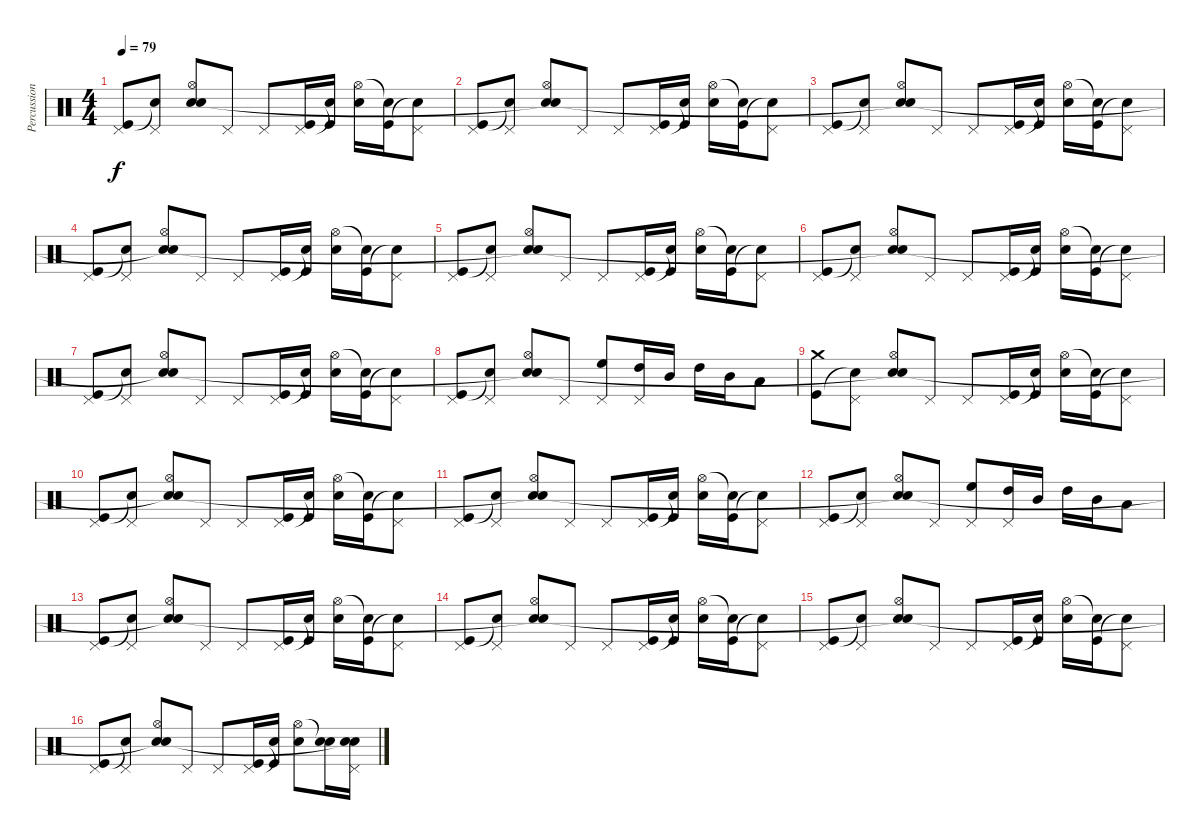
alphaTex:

\track ("Percussion" "Percussion") {instrument percussion}
\staff {score}
\articulation defaults
\ts (4 4)
\tempo 79
\clef neutral
\ks c
("Pedal Hi-Hat (hit)" "Kick (hit)").8{dy f} ("Pedal Hi-Hat (hit)" "Snare (hit)"{t}).8 ("Hi-Hat (open)" "Electric Snare (hit)" "Snare (hit)"{t}).8 "Pedal Hi-Hat (hit)".8 "Pedal Hi-Hat (hit)".8 ("Pedal Hi-Hat (hit)" "Kick (hit)").16 ("Snare (hit)"{t} "Kick (hit)").16 ("Hi-Hat (open)" "Electric Snare (hit)").16 ("Snare (hit)"{t} "Kick (hit)").16 ("Pedal Hi-Hat (hit)" "Snare (hit)"{t}).8 |
("Pedal Hi-Hat (hit)" "Kick (hit)").8 ("Pedal Hi-Hat (hit)" "Snare (hit)"{t}).8 ("Hi-Hat (open)" "Electric Snare (hit)" "Snare (hit)"{t}).8 "Pedal Hi-Hat (hit)".8 "Pedal Hi-Hat (hit)".8 ("Pedal Hi-Hat (hit)" "Kick (hit)").16 ("Snare (hit)"{t} "Kick (hit)").16 ("Hi-Hat (open)" "Electric Snare (hit)").16 ("Snare (hit)"{t} "Kick (hit)").16 ("Pedal Hi-Hat (hit)" "Snare (hit)"{t}).8 |
("Pedal Hi-Hat (hit)" "Kick (hit)").8 ("Pedal Hi-Hat (hit)" "Snare (hit)"{t}).8 ("Hi-Hat (open)" "Electric Snare (hit)" "Snare (hit)"{t}).8 "Pedal Hi-Hat (hit)".8 "Pedal Hi-Hat (hit)".8 ("Pedal Hi-Hat (hit)" "Kick (hit)").16 ("Snare (hit)"{t} "Kick (hit)").16 ("Hi-Hat (open)" "Electric Snare (hit)").16 ("Snare (hit)"{t} "Kick (hit)").16 ("Pedal Hi-Hat (hit)" "Snare (hit)"{t}).8 |
("Pedal Hi-Hat (hit)" "Kick (hit)").8 ("Pedal Hi-Hat (hit)" "Snare (hit)"{t}).8 ("Hi-Hat (open)" "Electric Snare (hit)" "Snare (hit)"{t}).8 "Pedal Hi-Hat (hit)".8 "Pedal Hi-Hat (hit)".8 ("Pedal Hi-Hat (hit)" "Kick (hit)").16 ("Snare (hit)"{t} "Kick (hit)").16 ("Hi-Hat (open)" "Electric Snare (hit)").16 ("Snare (hit)"{t} "Kick (hit)").16 ("Pedal Hi-Hat (hit)" "Snare (hit)"{t}).8 |
("Pedal Hi-Hat (hit)" "Kick (hit)").8 ("Pedal Hi-Hat (hit)" "Snare (hit)"{t}).8 ("Hi-Hat (open)" "Electric Snare (hit)" "Snare (hit)"{t}).8 "Pedal Hi-Hat (hit)".8 "Pedal Hi-Hat (hit)".8 ("Pedal Hi-Hat (hit)" "Kick (hit)").16 ("Snare (hit)"{t} "Kick (hit)").16 ("Hi-Hat (open)" "Electric Snare (hit)").16 ("Snare (hit)"{t} "Kick (hit)").16 ("Pedal Hi-Hat (hit)" "Snare (hit)"{t}).8 |
("Pedal Hi-Hat (hit)" "Kick (hit)").8 ("Pedal Hi-Hat (hit)" "Snare (hit)"{t}).8 ("Hi-Hat (open)" "Electric Snare (hit)" "Snare (hit)"{t}).8 "Pedal Hi-Hat (hit)".8 "Pedal Hi-Hat (hit)".8 ("Pedal Hi-Hat (hit)" "Kick (hit)").16 ("Snare (hit)"{t} "Kick (hit)").16 ("Hi-Hat (open)" "Electric Snare (hit)").16 ("Snare (hit)"{t} "Kick (hit)").16 ("Pedal Hi-Hat (hit)" "Snare (hit)"{t}).8 |
("Pedal Hi-Hat (hit)" "Kick (hit)").8 ("Pedal Hi-Hat (hit)" "Snare (hit)"{t}).8 ("Hi-Hat (open)" "Electric Snare (hit)" "Snare (hit)"{t}).8 "Pedal Hi-Hat (hit)".8 "Pedal Hi-Hat (hit)".8 ("Pedal Hi-Hat (hit)" "Kick (hit)").16 ("Snare (hit)"{t} "Kick (hit)").16 ("Hi-Hat (open)" "Electric Snare (hit)").16 ("Snare (hit)"{t} "Kick (hit)").16 ("Pedal Hi-Hat (hit)" "Snare (hit)"{t}).8 |
("Pedal Hi-Hat (hit)" "Kick (hit)").8 ("Pedal Hi-Hat (hit)" "Snare (hit)"{t}).8 ("Hi-Hat (open)" "Electric Snare (hit)" "Snare (hit)"{t}).8 "Pedal Hi-Hat (hit)".8 ("Pedal Hi-Hat (hit)" "High Floor Tom (hit)").8 ("Pedal Hi-Hat (hit)" "High Tom (hit)").16 "Mid Tom (hit)".16 "High Tom (hit)".16 "Mid Tom (hit)".16 "Low Tom (hit)".8 |
("Crash medium (hit)" "Kick (hit)").8 ("Pedal Hi-Hat (hit)" "Snare (hit)"{t}).8 ("Hi-Hat (open)" "Electric Snare (hit)" "Snare (hit)"{t}).8 "Pedal Hi-Hat (hit)".8 "Pedal Hi-Hat (hit)".8 ("Pedal Hi-Hat (hit)" "Kick (hit)").16 ("Snare (hit)"{t} "Kick (hit)").16 ("Hi-Hat (open)" "Electric Snare (hit)").16 ("Snare (hit)"{t} "Kick (hit)").16 ("Pedal Hi-Hat (hit)" "Snare (hit)"{t}).8 |
("Pedal Hi-Hat (hit)" "Kick (hit)").8 ("Pedal Hi-Hat (hit)" "Snare (hit)"{t}).8 ("Hi-Hat (open)" "Electric Snare (hit)" "Snare (hit)"{t}).8 "Pedal Hi-Hat (hit)".8 "Pedal Hi-Hat (hit)".8 ("Pedal Hi-Hat (hit)" "Kick (hit)").16 ("Snare (hit)"{t} "Kick (hit)").16 ("Hi-Hat (open)" "Electric Snare (hit)").16 ("Snare (hit)"{t} "Kick (hit)").16 ("Pedal Hi-Hat (hit)" "Snare (hit)"{t}).8 |
("Pedal Hi-Hat (hit)" "Kick (hit)").8 ("Pedal Hi-Hat (hit)" "Snare (hit)"{t}).8 ("Hi-Hat (open)" "Electric Snare (hit)" "Snare (hit)"{t}).8 "Pedal Hi-Hat (hit)".8 "Pedal Hi-Hat (hit)".8 ("Pedal Hi-Hat (hit)" "Kick (hit)").16 ("Snare (hit)"{t} "Kick (hit)").16 ("Hi-Hat (open)" "Electric Snare (hit)").16 ("Snare (hit)"{t} "Kick (hit)").16 ("Pedal Hi-Hat (hit)" "Snare (hit)"{t}).8 |
("Pedal Hi-Hat (hit)" "Kick (hit)").8 ("Pedal Hi-Hat (hit)" "Snare (hit)"{t}).8 ("Hi-Hat (open)" "Electric Snare (hit)" "Snare (hit)"{t}).8 "Pedal Hi-Hat (hit)".8 ("Pedal Hi-Hat (hit)" "High Floor Tom (hit)").8 ("Pedal Hi-Hat (hit)" "High Tom (hit)").16 "Mid Tom (hit)".16 "High Tom (hit)".16 "Mid Tom (hit)".16 "Low Tom (hit)".8 |
("Pedal Hi-Hat (hit)" "Kick (hit)").8 ("Pedal Hi-Hat (hit)" "Snare (hit)"{t}).8 ("Hi-Hat (open)" "Electric Snare (hit)" "Snare (hit)"{t}).8 "Pedal Hi-Hat (hit)".8 "Pedal Hi-Hat (hit)".8 ("Pedal Hi-Hat (hit)" "Kick (hit)").16 ("Snare (hit)"{t} "Kick (hit)").16 ("Hi-Hat (open)" "Electric Snare (hit)").16 ("Snare (hit)"{t} "Kick (hit)").16 ("Pedal Hi-Hat (hit)" "Snare (hit)"{t}).8 |
("Pedal Hi-Hat (hit)" "Kick (hit)").8 ("Pedal Hi-Hat (hit)" "Snare (hit)"{t}).8 ("Hi-Hat (open)" "Electric Snare (hit)" "Snare (hit)"{t}).8 "Pedal Hi-Hat (hit)".8 "Pedal Hi-Hat (hit)".8 ("Pedal Hi-Hat (hit)" "Kick (hit)").16 ("Snare (hit)"{t} "Kick (hit)").16 ("Hi-Hat (open)" "Electric Snare (hit)").16 ("Snare (hit)"{t} "Kick (hit)").16 ("Pedal Hi-Hat (hit)" "Snare (hit)"{t}).8 |
("Pedal Hi-Hat (hit)" "Kick (hit)").8 ("Pedal Hi-Hat (hit)" "Snare (hit)"{t}).8 ("Hi-Hat (open)" "Electric Snare (hit)" "Snare (hit)"{t}).8 "Pedal Hi-Hat (hit)".8 "Pedal Hi-Hat (hit)".8 ("Pedal Hi-Hat (hit)" "Kick (hit)").16 ("Snare (hit)"{t} "Kick (hit)").16 ("Hi-Hat (open)" "Electric Snare (hit)").16 ("Snare (hit)"{t} "Kick (hit)").16 ("Pedal Hi-Hat (hit)" "Snare (hit)"{t}).8 |
("Pedal Hi-Hat (hit)" "Kick (hit)").8 ("Pedal Hi-Hat (hit)" "Snare (hit)"{t}).8 ("Hi-Hat (open)" "Electric Snare (hit)" "Snare (hit)"{t}).8 "Pedal Hi-Hat (hit)".8 "Pedal Hi-Hat (hit)".8 ("Pedal Hi-Hat (hit)" "Kick (hit)").16 ("Snare (hit)"{t} "Kick (hit)").16 ("Hi-Hat (open)" "Electric Snare (hit)").8 ("Snare (hit)"{t} "Electric Snare (hit)").16 ("Pedal Hi-Hat (hit)" "Electric Snare (hit)" "Snare (hit)"{t}).16
